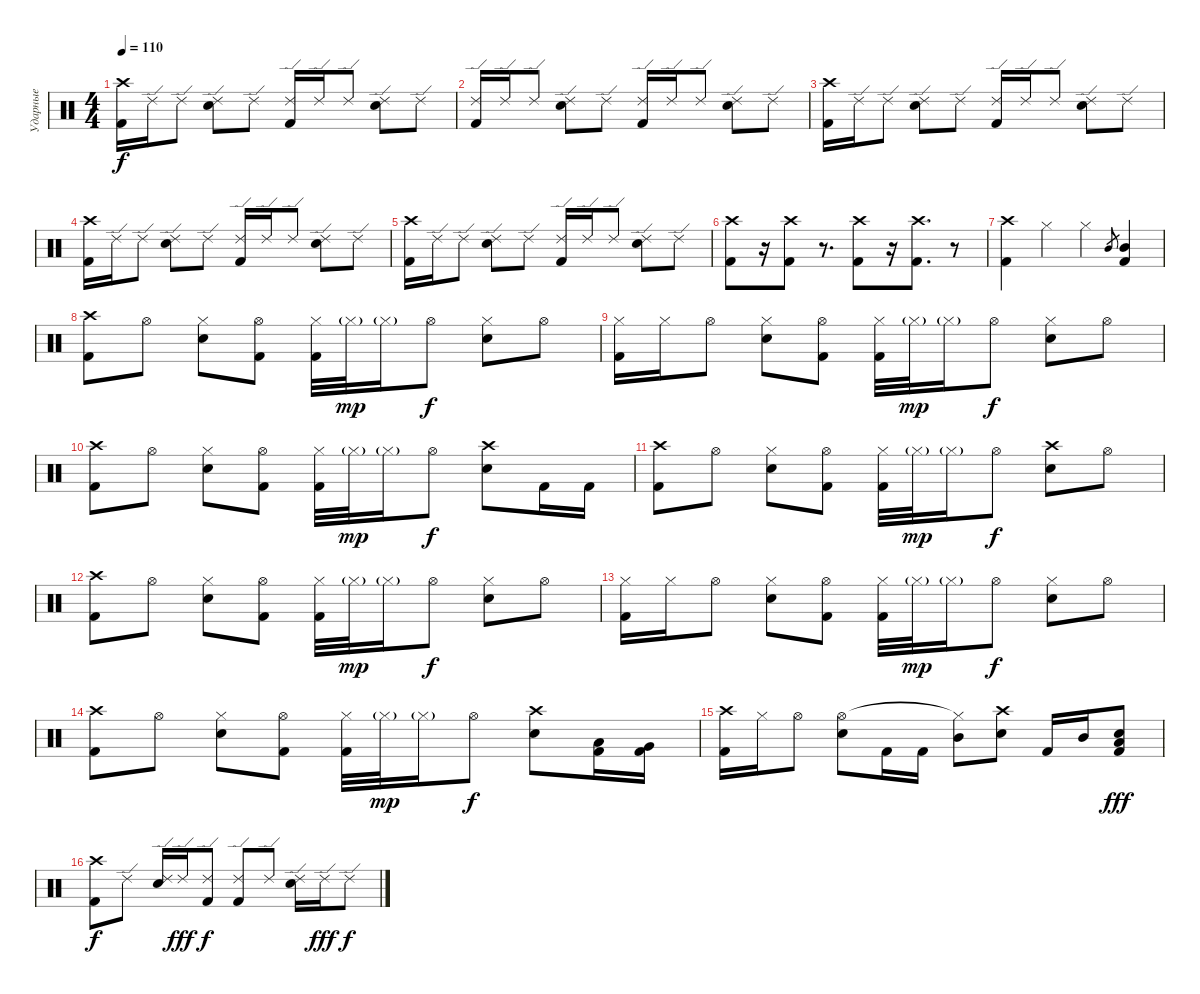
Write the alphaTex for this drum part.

\track ("Ударные" "Ударные") {instrument percussion}
\staff {score}
\articulation defaults
\ts (4 4)
\tempo 110
\clef neutral
\ks c
("Kick (hit) 2" "Crash high (hit)").16{dy f} "Ride (edge) 2".16 "Ride (edge) 2".8 ("Electric Snare (hit)" "Ride (edge) 2").8 "Ride (edge) 2".8 ("Kick (hit) 2" "Ride (edge) 2").16 "Ride (edge) 2".16 "Ride (edge) 2".8 ("Electric Snare (hit)" "Ride (edge) 2").8 "Ride (edge) 2".8 |
("Kick (hit) 2" "Ride (edge) 2").16 "Ride (edge) 2".16 "Ride (edge) 2".8 ("Electric Snare (hit)" "Ride (edge) 2").8 "Ride (edge) 2".8 ("Kick (hit) 2" "Ride (edge) 2").16 "Ride (edge) 2".16 "Ride (edge) 2".8 ("Electric Snare (hit)" "Ride (edge) 2").8 "Ride (edge) 2".8 |
("Kick (hit) 2" "Crash high (hit)").16 "Ride (edge) 2".16 "Ride (edge) 2".8 ("Electric Snare (hit)" "Ride (edge) 2").8 "Ride (edge) 2".8 ("Kick (hit) 2" "Ride (edge) 2").16 "Ride (edge) 2".16 "Ride (edge) 2".8 ("Electric Snare (hit)" "Ride (edge) 2").8 "Ride (edge) 2".8 |
("Kick (hit) 2" "Crash high (hit)").16 "Ride (edge) 2".16 "Ride (edge) 2".8 ("Electric Snare (hit)" "Ride (edge) 2").8 "Ride (edge) 2".8 ("Kick (hit) 2" "Ride (edge) 2").16 "Ride (edge) 2".16 "Ride (edge) 2".8 ("Electric Snare (hit)" "Ride (edge) 2").8 "Ride (edge) 2".8 |
("Kick (hit) 2" "Crash high (hit)").16 "Ride (edge) 2".16 "Ride (edge) 2".8 ("Electric Snare (hit)" "Ride (edge) 2").8 "Ride (edge) 2".8 ("Kick (hit) 2" "Ride (edge) 2").16 "Ride (edge) 2".16 "Ride (edge) 2".8 ("Electric Snare (hit)" "Ride (edge) 2").8 "Ride (edge) 2".8 |
("Kick (hit) 2" "Crash high (hit)").8 r.16 ("Kick (hit) 2" "Crash high (hit)").8 r.8{d} ("Kick (hit) 2" "Crash high (hit)").8 r.16 ("Kick (hit) 2" "Crash high (hit)").8{d} r.8 |
("Kick (hit) 2" "Crash high (hit)").4 "Hi-Hat (closed)".4 "Hi-Hat (closed)".4 "Mid Tom (hit)".8{gr} ("Kick (hit) 2" "Mid Tom (hit)").4 |
("Kick (hit) 2" "Crash high (hit)").8 "Hi-Hat (open)".8 ("Electric Snare (hit)" "Hi-Hat (closed)").8 ("Kick (hit) 2" "Hi-Hat (open)").8 ("Kick (hit) 2" "Hi-Hat (closed)").32 "Hi-Hat (closed)"{g}.32{dy mp} "Hi-Hat (closed)"{g}.16 "Hi-Hat (open)".8{dy f} ("Electric Snare (hit)" "Hi-Hat (closed)").8 "Hi-Hat (open)".8 |
("Kick (hit) 2" "Hi-Hat (closed)").16 "Hi-Hat (closed)".16 "Hi-Hat (open)".8 ("Electric Snare (hit)" "Hi-Hat (closed)").8 ("Kick (hit) 2" "Hi-Hat (open)").8 ("Kick (hit) 2" "Hi-Hat (closed)").32 "Hi-Hat (closed)"{g}.32{dy mp} "Hi-Hat (closed)"{g}.16 "Hi-Hat (open)".8{dy f} ("Electric Snare (hit)" "Hi-Hat (closed)").8 "Hi-Hat (open)".8 |
("Kick (hit) 2" "Crash high (hit)").8 "Hi-Hat (open)".8 ("Electric Snare (hit)" "Hi-Hat (closed)").8 ("Kick (hit) 2" "Hi-Hat (open)").8 ("Kick (hit) 2" "Hi-Hat (closed)").32 "Hi-Hat (closed)"{g}.32{dy mp} "Hi-Hat (closed)"{g}.16 "Hi-Hat (open)".8{dy f} ("Electric Snare (hit)" "Crash high (hit)").8 "Kick (hit) 2".16 "Kick (hit) 2".16 |
("Kick (hit) 2" "Crash high (hit)").8 "Hi-Hat (open)".8 ("Electric Snare (hit)" "Hi-Hat (closed)").8 ("Kick (hit) 2" "Hi-Hat (open)").8 ("Kick (hit) 2" "Hi-Hat (closed)").32 "Hi-Hat (closed)"{g}.32{dy mp} "Hi-Hat (closed)"{g}.16 "Hi-Hat (open)".8{dy f} ("Electric Snare (hit)" "Crash high (hit)").8 "Hi-Hat (open)".8 |
("Kick (hit) 2" "Crash high (hit)").8 "Hi-Hat (open)".8 ("Electric Snare (hit)" "Hi-Hat (closed)").8 ("Kick (hit) 2" "Hi-Hat (open)").8 ("Kick (hit) 2" "Hi-Hat (closed)").32 "Hi-Hat (closed)"{g}.32{dy mp} "Hi-Hat (closed)"{g}.16 "Hi-Hat (open)".8{dy f} ("Electric Snare (hit)" "Hi-Hat (closed)").8 "Hi-Hat (open)".8 |
("Kick (hit) 2" "Hi-Hat (closed)").16 "Hi-Hat (closed)".16 "Hi-Hat (open)".8 ("Electric Snare (hit)" "Hi-Hat (closed)").8 ("Kick (hit) 2" "Hi-Hat (open)").8 ("Kick (hit) 2" "Hi-Hat (closed)").32 "Hi-Hat (closed)"{g}.32{dy mp} "Hi-Hat (closed)"{g}.16 "Hi-Hat (open)".8{dy f} ("Electric Snare (hit)" "Hi-Hat (closed)").8 "Hi-Hat (open)".8 |
("Kick (hit) 2" "Crash high (hit)").8 "Hi-Hat (open)".8 ("Electric Snare (hit)" "Hi-Hat (closed)").8 ("Kick (hit) 2" "Hi-Hat (open)").8 ("Kick (hit) 2" "Hi-Hat (closed)").32 "Hi-Hat (closed)"{g}.32{dy mp} "Hi-Hat (closed)"{g}.16 "Hi-Hat (open)".8{dy f} ("Electric Snare (hit)" "Crash high (hit)").8 ("Kick (hit) 2" "Low Tom (hit)").16 ("Kick (hit) 2" "Very Low Tom (hit)").16 |
("Kick (hit) 2" "Crash high (hit)").16 "Hi-Hat (closed)".16 "Hi-Hat (open)".8 ("Electric Snare (hit)" "Hi-Hat (open)").8 "Kick (hit) 2".16 "Kick (hit) 2".16 ("Mid Tom (hit)" "Hi-Hat (closed)"{t}).8 ("Electric Snare (hit)" "Crash high (hit)").8 "Kick (hit) 2".16 "Mid Tom (hit)".16 ("Kick (hit) 2" "Low Tom (hit)" "Snare (hit)").8{dy fff} |
("Kick (hit) 2" "Crash high (hit)").8{dy f} "Ride (edge) 2".8 ("Electric Snare (hit)" "Ride (edge) 2").16 "Ride (edge) 2".16{dy fff} ("Kick (hit) 2" "Ride (edge) 2").8{dy f} ("Kick (hit) 2" "Ride (edge) 2").8 "Ride (edge) 2".8 ("Electric Snare (hit)" "Ride (edge) 2").16 "Ride (edge) 2".16{dy fff} "Ride (edge) 2".8{dy f}
